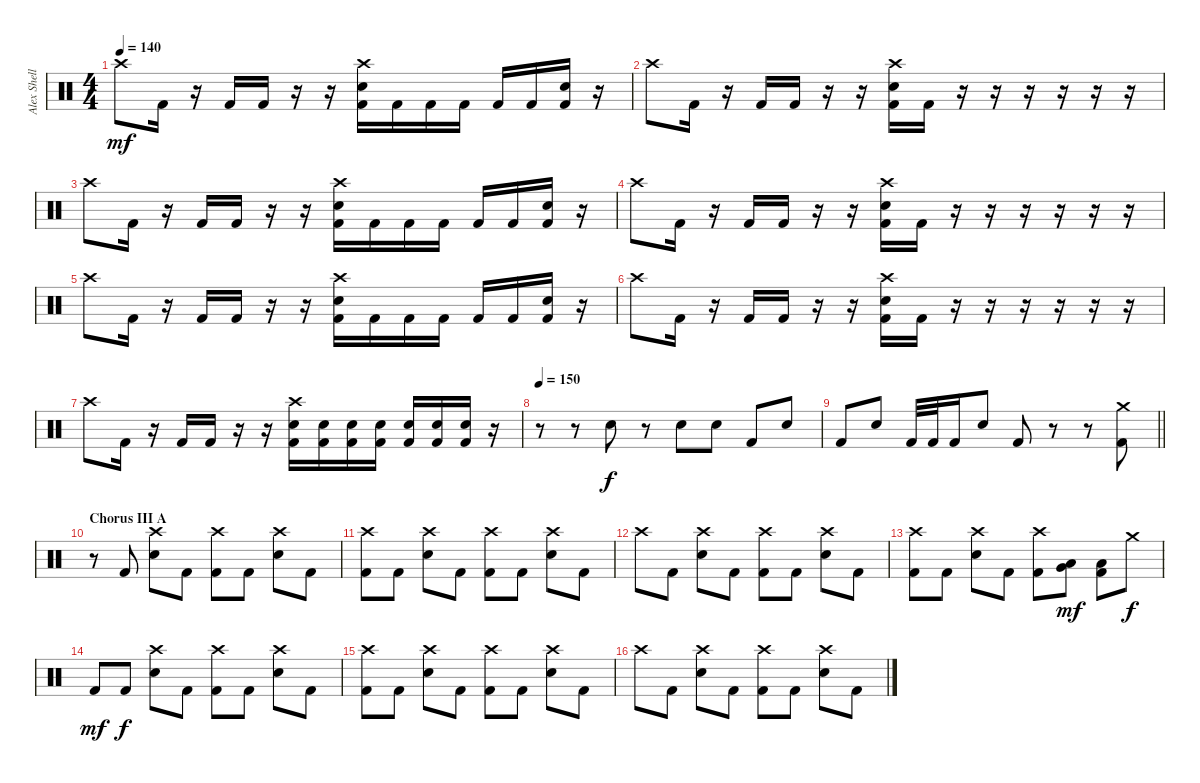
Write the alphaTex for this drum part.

\track ("Alex Shellnutt" "Alex Shell") {instrument percussion}
\staff {score}
\articulation defaults
\ts (4 4)
\tempo 140
\clef neutral
\ks c "Crash high (hit)".8{dy mf} "Kick (hit) 2".16
r.16 "Kick (hit) 2".16 "Kick (hit) 2".16 r.16 r.16 ("Crash high (hit)" "Snare (hit) 2" "Kick (hit) 2").16 "Kick (hit) 2".16 "Kick (hit) 2".16 "Kick (hit) 2".16 "Kick (hit) 2".16 "Kick (hit) 2".16 ("Snare (hit) 2" "Kick (hit) 2").16 r.16 |
"Crash high (hit)".8 "Kick (hit) 2".16 r.16 "Kick (hit) 2".16 "Kick (hit) 2".16 r.16 r.16 ("Crash high (hit)" "Snare (hit) 2" "Kick (hit) 2").16 "Kick (hit) 2".16 r.16 r.16 r.16 r.16 r.16 r.16 |
"Crash high (hit)".8 "Kick (hit) 2".16 r.16 "Kick (hit) 2".16 "Kick (hit) 2".16 r.16 r.16 ("Crash high (hit)" "Snare (hit) 2" "Kick (hit) 2").16 "Kick (hit) 2".16 "Kick (hit) 2".16 "Kick (hit) 2".16 "Kick (hit) 2".16 "Kick (hit) 2".16 ("Snare (hit) 2" "Kick (hit) 2").16 r.16 |
"Crash high (hit)".8 "Kick (hit) 2".16 r.16 "Kick (hit) 2".16 "Kick (hit) 2".16 r.16 r.16 ("Crash high (hit)" "Snare (hit) 2" "Kick (hit) 2").16 "Kick (hit) 2".16 r.16 r.16 r.16 r.16 r.16 r.16 |
"Crash high (hit)".8 "Kick (hit) 2".16 r.16 "Kick (hit) 2".16 "Kick (hit) 2".16 r.16 r.16 ("Crash high (hit)" "Snare (hit) 2" "Kick (hit) 2").16 "Kick (hit) 2".16 "Kick (hit) 2".16 "Kick (hit) 2".16 "Kick (hit) 2".16 "Kick (hit) 2".16 ("Snare (hit) 2" "Kick (hit) 2").16 r.16 |
"Crash high (hit)".8 "Kick (hit) 2".16 r.16 "Kick (hit) 2".16 "Kick (hit) 2".16 r.16 r.16 ("Crash high (hit)" "Snare (hit) 2" "Kick (hit) 2").16 "Kick (hit) 2".16 r.16 r.16 r.16 r.16 r.16 r.16 |
"Crash high (hit)".8 "Kick (hit) 2".16 r.16 "Kick (hit) 2".16 "Kick (hit) 2".16 r.16 r.16 ("Crash high (hit)" "Snare (hit) 2" "Kick (hit) 2").16 ("Snare (hit) 2" "Kick (hit) 2").16 ("Snare (hit) 2" "Kick (hit) 2").16 ("Snare (hit) 2" "Kick (hit) 2").16 ("Snare (hit) 2" "Kick (hit) 2").16 ("Snare (hit) 2" "Kick (hit) 2").16 ("Snare (hit) 2" "Kick (hit) 2").16 r.16 |
\tempo 150
r.8 r.8 "Snare (hit) 2".8{dy f} r.8 "Snare (hit) 2".8 "Snare (hit) 2".8 "Kick (hit) 2".8 "Snare (hit) 2".8 |
\barLineRight lightlight "Kick (hit) 2".8 "Snare (hit) 2".8 "Kick (hit) 2".32 "Kick (hit) 2".32 "Kick (hit) 2".16 "Snare (hit) 2".8 "Kick (hit) 2".8
r.8 r.8 ("Crash medium (hit)" "Kick (hit) 2").8 |
\section ("" "Chorus III A")
r.8 "Kick (hit) 2".8 ("Crash high (hit)" "Snare (hit) 2").8 "Kick (hit) 2".8 ("Crash high (hit)" "Kick (hit) 2").8 "Kick (hit) 2".8 ("Crash high (hit)" "Snare (hit) 2").8 "Kick (hit) 2".8 |
("Crash high (hit)" "Kick (hit) 2").8 "Kick (hit) 2".8 ("Crash high (hit)" "Snare (hit) 2").8 "Kick (hit) 2".8 ("Crash high (hit)" "Kick (hit) 2").8 "Kick (hit) 2".8 ("Crash high (hit)" "Snare (hit) 2").8 "Kick (hit) 2".8 |
"Crash high (hit)".8 "Kick (hit) 2".8 ("Crash high (hit)" "Snare (hit) 2").8 "Kick (hit) 2".8 ("Crash high (hit)" "Kick (hit) 2").8 "Kick (hit) 2".8 ("Crash high (hit)" "Snare (hit) 2").8 "Kick (hit) 2".8 |
("Crash high (hit)" "Kick (hit) 2").8 "Kick (hit) 2".8 ("Crash high (hit)" "Snare (hit) 2").8 "Kick (hit) 2".8 ("Crash high (hit)" "Kick (hit) 2").8 ("Very Low Tom (hit)" "Low Floor Tom (hit)").8{dy mf} ("Low Floor Tom (hit)" "Kick (hit) 2").8 "Crash medium (hit)".8{dy f} |
"Kick (hit) 2".8{dy mf} "Kick (hit) 2".8{dy f} ("Crash high (hit)" "Snare (hit) 2").8 "Kick (hit) 2".8 ("Crash high (hit)" "Kick (hit) 2").8 "Kick (hit) 2".8 ("Crash high (hit)" "Snare (hit) 2").8 "Kick (hit) 2".8 |
("Crash high (hit)" "Kick (hit) 2").8 "Kick (hit) 2".8 ("Crash high (hit)" "Snare (hit) 2").8 "Kick (hit) 2".8 ("Crash high (hit)" "Kick (hit) 2").8 "Kick (hit) 2".8 ("Crash high (hit)" "Snare (hit) 2").8 "Kick (hit) 2".8 |
"Crash high (hit)".8 "Kick (hit) 2".8 ("Crash high (hit)" "Snare (hit) 2").8 "Kick (hit) 2".8 ("Crash high (hit)" "Kick (hit) 2").8 "Kick (hit) 2".8 ("Crash high (hit)" "Snare (hit) 2").8 "Kick (hit) 2".8
